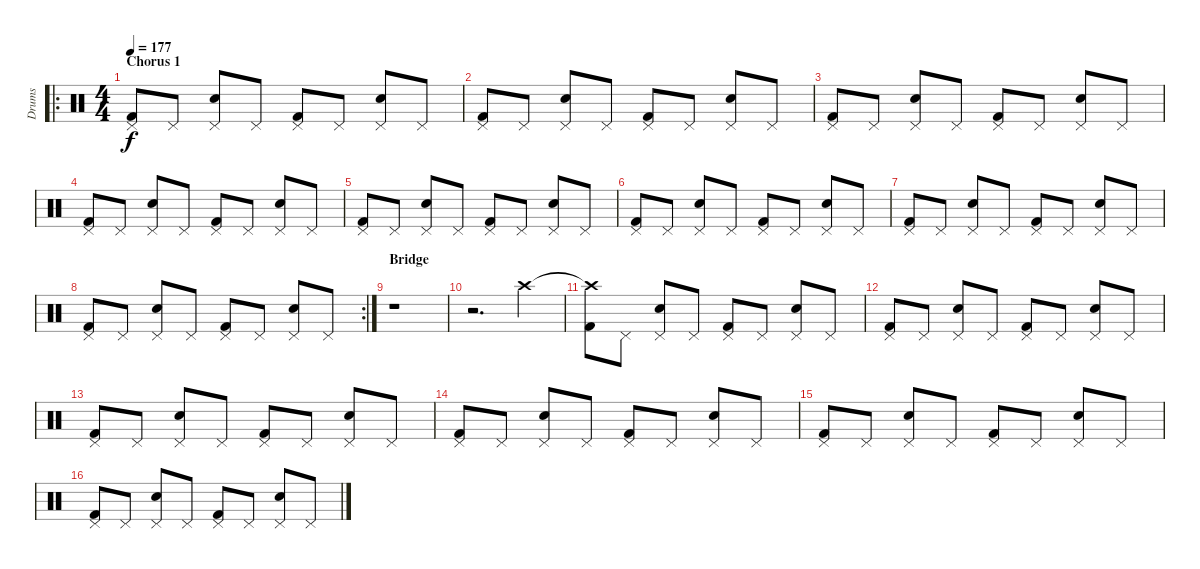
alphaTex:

\track ("Drums" "Drums") {instrument percussion}
\staff {score}
\articulation defaults
\ro
\ts (4 4)
\section ("" "Chorus 1")
\tempo 177
\clef neutral
\ks c
("Pedal Hi-Hat (hit)" "Kick (hit) 2").8{dy f} "Pedal Hi-Hat (hit)".8 ("Pedal Hi-Hat (hit)" "Electric Snare (hit)").8 "Pedal Hi-Hat (hit)".8 ("Pedal Hi-Hat (hit)" "Kick (hit) 2").8 "Pedal Hi-Hat (hit)".8 ("Pedal Hi-Hat (hit)" "Electric Snare (hit)").8 "Pedal Hi-Hat (hit)".8 |
("Pedal Hi-Hat (hit)" "Kick (hit) 2").8 "Pedal Hi-Hat (hit)".8 ("Pedal Hi-Hat (hit)" "Electric Snare (hit)").8 "Pedal Hi-Hat (hit)".8 ("Pedal Hi-Hat (hit)" "Kick (hit) 2").8 "Pedal Hi-Hat (hit)".8 ("Pedal Hi-Hat (hit)" "Electric Snare (hit)").8 "Pedal Hi-Hat (hit)".8 |
("Pedal Hi-Hat (hit)" "Kick (hit) 2").8 "Pedal Hi-Hat (hit)".8 ("Pedal Hi-Hat (hit)" "Electric Snare (hit)").8 "Pedal Hi-Hat (hit)".8 ("Pedal Hi-Hat (hit)" "Kick (hit) 2").8 "Pedal Hi-Hat (hit)".8 ("Pedal Hi-Hat (hit)" "Electric Snare (hit)").8 "Pedal Hi-Hat (hit)".8 |
("Pedal Hi-Hat (hit)" "Kick (hit) 2").8 "Pedal Hi-Hat (hit)".8 ("Pedal Hi-Hat (hit)" "Electric Snare (hit)").8 "Pedal Hi-Hat (hit)".8 ("Pedal Hi-Hat (hit)" "Kick (hit) 2").8 "Pedal Hi-Hat (hit)".8 ("Pedal Hi-Hat (hit)" "Electric Snare (hit)").8 "Pedal Hi-Hat (hit)".8 |
("Pedal Hi-Hat (hit)" "Kick (hit) 2").8 "Pedal Hi-Hat (hit)".8 ("Pedal Hi-Hat (hit)" "Electric Snare (hit)").8 "Pedal Hi-Hat (hit)".8 ("Pedal Hi-Hat (hit)" "Kick (hit) 2").8 "Pedal Hi-Hat (hit)".8 ("Pedal Hi-Hat (hit)" "Electric Snare (hit)").8 "Pedal Hi-Hat (hit)".8 |
("Pedal Hi-Hat (hit)" "Kick (hit) 2").8 "Pedal Hi-Hat (hit)".8 ("Pedal Hi-Hat (hit)" "Electric Snare (hit)").8 "Pedal Hi-Hat (hit)".8 ("Pedal Hi-Hat (hit)" "Kick (hit) 2").8 "Pedal Hi-Hat (hit)".8 ("Pedal Hi-Hat (hit)" "Electric Snare (hit)").8 "Pedal Hi-Hat (hit)".8 |
("Pedal Hi-Hat (hit)" "Kick (hit) 2").8 "Pedal Hi-Hat (hit)".8 ("Pedal Hi-Hat (hit)" "Electric Snare (hit)").8 "Pedal Hi-Hat (hit)".8 ("Pedal Hi-Hat (hit)" "Kick (hit) 2").8 "Pedal Hi-Hat (hit)".8 ("Pedal Hi-Hat (hit)" "Electric Snare (hit)").8 "Pedal Hi-Hat (hit)".8 |
\rc 2
("Pedal Hi-Hat (hit)" "Kick (hit) 2").8 "Pedal Hi-Hat (hit)".8 ("Pedal Hi-Hat (hit)" "Electric Snare (hit)").8 "Pedal Hi-Hat (hit)".8 ("Pedal Hi-Hat (hit)" "Kick (hit) 2").8 "Pedal Hi-Hat (hit)".8 ("Pedal Hi-Hat (hit)" "Electric Snare (hit)").8 "Pedal Hi-Hat (hit)".8 |
\section ("" "Bridge ")
r.1 |
r.2{d} "Crash high (hit)".4 |
("Crash high (hit)"{t} "Kick (hit) 2").8 "Pedal Hi-Hat (hit)".8 ("Pedal Hi-Hat (hit)" "Electric Snare (hit)").8 "Pedal Hi-Hat (hit)".8 ("Pedal Hi-Hat (hit)" "Kick (hit) 2").8 "Pedal Hi-Hat (hit)".8 ("Pedal Hi-Hat (hit)" "Electric Snare (hit)").8 "Pedal Hi-Hat (hit)".8 |
("Pedal Hi-Hat (hit)" "Kick (hit) 2").8 "Pedal Hi-Hat (hit)".8 ("Pedal Hi-Hat (hit)" "Electric Snare (hit)").8 "Pedal Hi-Hat (hit)".8 ("Pedal Hi-Hat (hit)" "Kick (hit) 2").8 "Pedal Hi-Hat (hit)".8 ("Pedal Hi-Hat (hit)" "Electric Snare (hit)").8 "Pedal Hi-Hat (hit)".8 |
("Pedal Hi-Hat (hit)" "Kick (hit) 2").8 "Pedal Hi-Hat (hit)".8 ("Pedal Hi-Hat (hit)" "Electric Snare (hit)").8 "Pedal Hi-Hat (hit)".8 ("Pedal Hi-Hat (hit)" "Kick (hit) 2").8 "Pedal Hi-Hat (hit)".8 ("Pedal Hi-Hat (hit)" "Electric Snare (hit)").8 "Pedal Hi-Hat (hit)".8 |
("Pedal Hi-Hat (hit)" "Kick (hit) 2").8 "Pedal Hi-Hat (hit)".8 ("Pedal Hi-Hat (hit)" "Electric Snare (hit)").8 "Pedal Hi-Hat (hit)".8 ("Pedal Hi-Hat (hit)" "Kick (hit) 2").8 "Pedal Hi-Hat (hit)".8 ("Pedal Hi-Hat (hit)" "Electric Snare (hit)").8 "Pedal Hi-Hat (hit)".8 |
("Pedal Hi-Hat (hit)" "Kick (hit) 2").8 "Pedal Hi-Hat (hit)".8 ("Pedal Hi-Hat (hit)" "Electric Snare (hit)").8 "Pedal Hi-Hat (hit)".8 ("Pedal Hi-Hat (hit)" "Kick (hit) 2").8 "Pedal Hi-Hat (hit)".8 ("Pedal Hi-Hat (hit)" "Electric Snare (hit)").8 "Pedal Hi-Hat (hit)".8 |
("Pedal Hi-Hat (hit)" "Kick (hit) 2").8 "Pedal Hi-Hat (hit)".8 ("Pedal Hi-Hat (hit)" "Electric Snare (hit)").8 "Pedal Hi-Hat (hit)".8 ("Pedal Hi-Hat (hit)" "Kick (hit) 2").8 "Pedal Hi-Hat (hit)".8 ("Pedal Hi-Hat (hit)" "Electric Snare (hit)").8 "Pedal Hi-Hat (hit)".8
